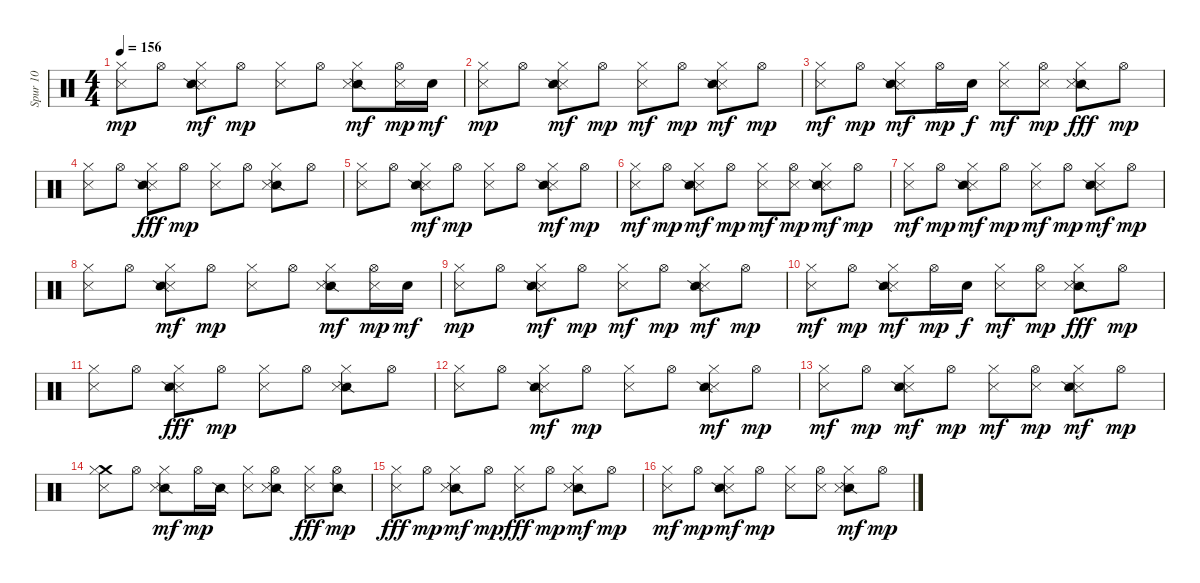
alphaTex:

\track ("Spur 10" "Spur 10") {instrument percussion}
\staff {score}
\articulation defaults
\ts (4 4)
\tempo 156
\clef neutral
\ks c
("Metronome (hit)" "Hi-Hat (closed)").8{dy mp} "Hi-Hat (open)".8 ("Metronome (hit)" "Snare (side stick) 2" "Hi-Hat (closed)").8{dy mf} "Hi-Hat (open)".8{dy mp} ("Metronome (hit)" "Hi-Hat (closed)").8 "Hi-Hat (open)".8 ("Snare (side stick) 2" "Metronome (hit)" "Hi-Hat (closed)").8{dy mf} ("Metronome (hit)" "Hi-Hat (open)").16{dy mp} "Electric Snare (hit)".16{dy mf} |
("Metronome (hit)" "Hi-Hat (closed)").8{dy mp} "Hi-Hat (open)".8 ("Metronome (hit)" "Snare (side stick) 2" "Hi-Hat (closed)").8{dy mf} "Hi-Hat (open)".8{dy mp} ("Metronome (hit)" "Hi-Hat (closed)").8{dy mf} "Hi-Hat (open)".8{dy mp} ("Metronome (hit)" "Snare (side stick) 2" "Hi-Hat (closed)").8{dy mf} "Hi-Hat (open)".8{dy mp} |
("Metronome (hit)" "Hi-Hat (closed)").8{dy mf} "Hi-Hat (open)".8{dy mp} ("Metronome (hit)" "Snare (side stick) 2" "Hi-Hat (closed)").8{dy mf} "Hi-Hat (open)".16{dy mp} "Electric Snare (hit)".16{dy f} ("Metronome (hit)" "Hi-Hat (closed)").8{dy mf} ("Metronome (hit)" "Hi-Hat (open)").8{dy mp} ("Snare (side stick) 2" "Metronome (hit)" "Hi-Hat (closed)").8{dy fff} "Hi-Hat (open)".8{dy mp} |
("Metronome (hit)" "Hi-Hat (closed)").8 "Hi-Hat (open)".8 ("Metronome (hit)" "Snare (side stick) 2" "Hi-Hat (closed)").8{dy fff} "Hi-Hat (open)".8{dy mp} ("Metronome (hit)" "Hi-Hat (closed)").8 "Hi-Hat (open)".8 ("Snare (side stick) 2" "Metronome (hit)" "Hi-Hat (closed)").8 "Hi-Hat (open)".8 |
("Metronome (hit)" "Hi-Hat (closed)").8 "Hi-Hat (open)".8 ("Metronome (hit)" "Snare (side stick) 2" "Hi-Hat (closed)").8{dy mf} "Hi-Hat (open)".8{dy mp} ("Metronome (hit)" "Hi-Hat (closed)").8 "Hi-Hat (open)".8 ("Metronome (hit)" "Snare (side stick) 2" "Hi-Hat (closed)").8{dy mf} "Hi-Hat (open)".8{dy mp} |
("Metronome (hit)" "Hi-Hat (closed)").8{dy mf} "Hi-Hat (open)".8{dy mp} ("Metronome (hit)" "Snare (side stick) 2" "Hi-Hat (closed)").8{dy mf} "Hi-Hat (open)".8{dy mp} ("Metronome (hit)" "Hi-Hat (closed)").8{dy mf} ("Metronome (hit)" "Hi-Hat (open)").8{dy mp} ("Metronome (hit)" "Snare (side stick) 2" "Hi-Hat (closed)").8{dy mf} "Hi-Hat (open)".8{dy mp} |
("Metronome (hit)" "Hi-Hat (closed)").8{dy mf} "Hi-Hat (open)".8{dy mp} ("Metronome (hit)" "Snare (side stick) 2" "Hi-Hat (closed)").8{dy mf} "Hi-Hat (open)".8{dy mp} ("Metronome (hit)" "Hi-Hat (closed)").8{dy mf} "Hi-Hat (open)".8{dy mp} ("Metronome (hit)" "Snare (side stick) 2" "Hi-Hat (closed)").8{dy mf} "Hi-Hat (open)".8{dy mp} |
("Metronome (hit)" "Hi-Hat (closed)").8 "Hi-Hat (open)".8 ("Metronome (hit)" "Snare (side stick) 2" "Hi-Hat (closed)").8{dy mf} "Hi-Hat (open)".8{dy mp} ("Metronome (hit)" "Hi-Hat (closed)").8 "Hi-Hat (open)".8 ("Snare (side stick) 2" "Metronome (hit)" "Hi-Hat (closed)").8{dy mf} ("Metronome (hit)" "Hi-Hat (open)").16{dy mp} "Electric Snare (hit)".16{dy mf} |
("Metronome (hit)" "Hi-Hat (closed)").8{dy mp} "Hi-Hat (open)".8 ("Metronome (hit)" "Snare (side stick) 2" "Hi-Hat (closed)").8{dy mf} "Hi-Hat (open)".8{dy mp} ("Metronome (hit)" "Hi-Hat (closed)").8{dy mf} "Hi-Hat (open)".8{dy mp} ("Metronome (hit)" "Snare (side stick) 2" "Hi-Hat (closed)").8{dy mf} "Hi-Hat (open)".8{dy mp} |
("Metronome (hit)" "Hi-Hat (closed)").8{dy mf} "Hi-Hat (open)".8{dy mp} ("Metronome (hit)" "Snare (side stick) 2" "Hi-Hat (closed)").8{dy mf} "Hi-Hat (open)".16{dy mp} "Electric Snare (hit)".16{dy f} ("Metronome (hit)" "Hi-Hat (closed)").8{dy mf} ("Metronome (hit)" "Hi-Hat (open)").8{dy mp} ("Snare (side stick) 2" "Metronome (hit)" "Hi-Hat (closed)").8{dy fff} "Hi-Hat (open)".8{dy mp} |
("Metronome (hit)" "Hi-Hat (closed)").8 "Hi-Hat (open)".8 ("Metronome (hit)" "Snare (side stick) 2" "Hi-Hat (closed)").8{dy fff} "Hi-Hat (open)".8{dy mp} ("Metronome (hit)" "Hi-Hat (closed)").8 "Hi-Hat (open)".8 ("Snare (side stick) 2" "Metronome (hit)" "Hi-Hat (closed)").8 "Hi-Hat (open)".8 |
("Metronome (hit)" "Hi-Hat (closed)").8 "Hi-Hat (open)".8 ("Metronome (hit)" "Snare (side stick) 2" "Hi-Hat (closed)").8{dy mf} "Hi-Hat (open)".8{dy mp} ("Metronome (hit)" "Hi-Hat (closed)").8 "Hi-Hat (open)".8 ("Metronome (hit)" "Snare (side stick) 2" "Hi-Hat (closed)").8{dy mf} "Hi-Hat (open)".8{dy mp} |
("Metronome (hit)" "Hi-Hat (closed)").8{dy mf} "Hi-Hat (open)".8{dy mp} ("Metronome (hit)" "Snare (side stick) 2" "Hi-Hat (closed)").8{dy mf} "Hi-Hat (open)".8{dy mp} ("Metronome (hit)" "Hi-Hat (closed)").8{dy mf} ("Metronome (hit)" "Hi-Hat (open)").8{dy mp} ("Metronome (hit)" "Snare (side stick) 2" "Hi-Hat (closed)").8{dy mf} "Hi-Hat (open)".8{dy mp} |
("Crash medium (hit)" "Metronome (hit)" "Hi-Hat (closed)").8 "Hi-Hat (open)".8 ("Snare (side stick) 2" "Metronome (hit)" "Hi-Hat (closed)").8{dy mf} "Hi-Hat (open)".16{dy mp} "Snare (side stick) 2".16 ("Metronome (hit)" "Hi-Hat (closed)").8 ("Snare (side stick) 2" "Metronome (hit)" "Hi-Hat (open)").8 ("Metronome (hit)" "Hi-Hat (closed)").8{dy fff} ("Snare (side stick) 2" "Hi-Hat (open)").8{dy mp} |
("Metronome (hit)" "Hi-Hat (closed)").8{dy fff} "Hi-Hat (open)".8{dy mp} ("Snare (side stick) 2" "Metronome (hit)" "Hi-Hat (closed)").8{dy mf} "Hi-Hat (open)".8{dy mp} ("Metronome (hit)" "Hi-Hat (closed)").8{dy fff} "Hi-Hat (open)".8{dy mp} ("Snare (side stick) 2" "Metronome (hit)" "Hi-Hat (closed)").8{dy mf} "Hi-Hat (open)".8{dy mp} |
("Metronome (hit)" "Hi-Hat (closed)").8{dy mf} "Hi-Hat (open)".8{dy mp} ("Metronome (hit)" "Snare (side stick) 2" "Hi-Hat (closed)").8{dy mf} "Hi-Hat (open)".8{dy mp} ("Metronome (hit)" "Hi-Hat (closed)").8 ("Metronome (hit)" "Hi-Hat (open)").8 ("Snare (side stick) 2" "Metronome (hit)" "Hi-Hat (closed)").8{dy mf} "Hi-Hat (open)".8{dy mp}
